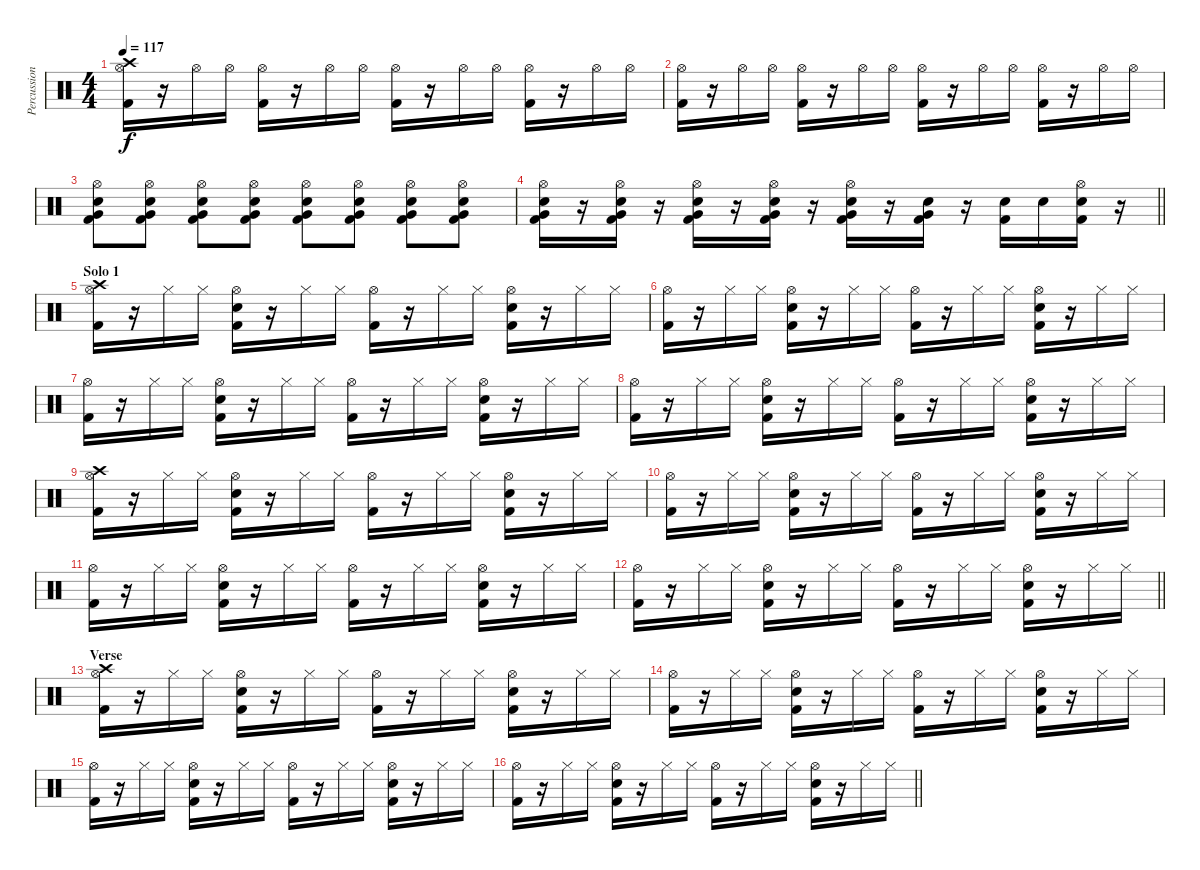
\track ("Percussion" "Percussion") {instrument percussion}
\staff {score}
\articulation defaults
\ts (4 4)
\tempo 117
\clef neutral
\ks c
("Crash high (hit)" "Hi-Hat (open)" "Kick (hit) 2").16{dy f} r.16 "Hi-Hat (open)".16 "Hi-Hat (open)".16 ("Hi-Hat (open)" "Kick (hit) 2").16 r.16 "Hi-Hat (open)".16 "Hi-Hat (open)".16 ("Hi-Hat (open)" "Kick (hit) 2").16 r.16 "Hi-Hat (open)".16 "Hi-Hat (open)".16 ("Hi-Hat (open)" "Kick (hit) 2").16 r.16 "Hi-Hat (open)".16 "Hi-Hat (open)".16 |
("Hi-Hat (open)" "Kick (hit) 2").16 r.16 "Hi-Hat (open)".16 "Hi-Hat (open)".16 ("Hi-Hat (open)" "Kick (hit) 2").16 r.16 "Hi-Hat (open)".16 "Hi-Hat (open)".16 ("Hi-Hat (open)" "Kick (hit) 2").16 r.16 "Hi-Hat (open)".16 "Hi-Hat (open)".16 ("Hi-Hat (open)" "Kick (hit) 2").16 r.16 "Hi-Hat (open)".16 "Hi-Hat (open)".16 |
("Snare (hit) 2" "Hi-Hat (open)" "Very Low Tom (hit)" "Kick (hit) 2").8 ("Snare (hit) 2" "Hi-Hat (open)" "Very Low Tom (hit)" "Kick (hit) 2").8 ("Snare (hit) 2" "Hi-Hat (open)" "Very Low Tom (hit)" "Kick (hit) 2").8 ("Snare (hit) 2" "Hi-Hat (open)" "Very Low Tom (hit)" "Kick (hit) 2").8 ("Snare (hit) 2" "Hi-Hat (open)" "Very Low Tom (hit)" "Kick (hit) 2").8 ("Snare (hit) 2" "Hi-Hat (open)" "Very Low Tom (hit)" "Kick (hit) 2").8 ("Snare (hit) 2" "Hi-Hat (open)" "Very Low Tom (hit)" "Kick (hit) 2").8 ("Snare (hit) 2" "Hi-Hat (open)" "Very Low Tom (hit)" "Kick (hit) 2").8 |
\barLineRight lightlight
("Snare (hit) 2" "Hi-Hat (open)" "Very Low Tom (hit)" "Kick (hit) 2").16 r.16 ("Snare (hit) 2" "Hi-Hat (open)" "Very Low Tom (hit)" "Kick (hit) 2").16 r.16 ("Snare (hit) 2" "Hi-Hat (open)" "Very Low Tom (hit)" "Kick (hit) 2").16 r.16 ("Snare (hit) 2" "Hi-Hat (open)" "Very Low Tom (hit)" "Kick (hit) 2").16 r.16 ("Snare (hit) 2" "Hi-Hat (open)" "Very Low Tom (hit)" "Kick (hit) 2").16 r.16 ("Snare (hit) 2" "Very Low Tom (hit)" "Kick (hit) 2").16 r.16 ("Snare (hit) 2" "Kick (hit) 2").16 "Snare (hit) 2".16 ("Hi-Hat (open)" "Snare (hit) 2" "Kick (hit) 2").16 r.16 |
\section ("" "Solo 1")
("Crash high (hit)" "Hi-Hat (open)" "Kick (hit) 2").16 r.16 "Hi-Hat (closed)".16 "Hi-Hat (closed)".16 ("Hi-Hat (open)" "Snare (hit) 2" "Kick (hit) 2").16 r.16 "Hi-Hat (closed)".16 "Hi-Hat (closed)".16 ("Hi-Hat (open)" "Kick (hit) 2").16 r.16 "Hi-Hat (closed)".16 "Hi-Hat (closed)".16 ("Hi-Hat (open)" "Snare (hit) 2" "Kick (hit) 2").16 r.16 "Hi-Hat (closed)".16 "Hi-Hat (closed)".16 |
("Hi-Hat (open)" "Kick (hit) 2").16 r.16 "Hi-Hat (closed)".16 "Hi-Hat (closed)".16 ("Hi-Hat (open)" "Snare (hit) 2" "Kick (hit) 2").16 r.16 "Hi-Hat (closed)".16 "Hi-Hat (closed)".16 ("Hi-Hat (open)" "Kick (hit) 2").16 r.16 "Hi-Hat (closed)".16 "Hi-Hat (closed)".16 ("Hi-Hat (open)" "Snare (hit) 2" "Kick (hit) 2").16 r.16 "Hi-Hat (closed)".16 "Hi-Hat (closed)".16 |
("Hi-Hat (open)" "Kick (hit) 2").16 r.16 "Hi-Hat (closed)".16 "Hi-Hat (closed)".16 ("Hi-Hat (open)" "Snare (hit) 2" "Kick (hit) 2").16 r.16 "Hi-Hat (closed)".16 "Hi-Hat (closed)".16 ("Hi-Hat (open)" "Kick (hit) 2").16 r.16 "Hi-Hat (closed)".16 "Hi-Hat (closed)".16 ("Hi-Hat (open)" "Snare (hit) 2" "Kick (hit) 2").16 r.16 "Hi-Hat (closed)".16 "Hi-Hat (closed)".16 |
("Hi-Hat (open)" "Kick (hit) 2").16 r.16 "Hi-Hat (closed)".16 "Hi-Hat (closed)".16 ("Hi-Hat (open)" "Snare (hit) 2" "Kick (hit) 2").16 r.16 "Hi-Hat (closed)".16 "Hi-Hat (closed)".16 ("Hi-Hat (open)" "Kick (hit) 2").16 r.16 "Hi-Hat (closed)".16 "Hi-Hat (closed)".16 ("Hi-Hat (open)" "Snare (hit) 2" "Kick (hit) 2").16 r.16 "Hi-Hat (closed)".16 "Hi-Hat (closed)".16 |
("Crash high (hit)" "Hi-Hat (open)" "Kick (hit) 2").16 r.16 "Hi-Hat (closed)".16 "Hi-Hat (closed)".16 ("Hi-Hat (open)" "Snare (hit) 2" "Kick (hit) 2").16 r.16 "Hi-Hat (closed)".16 "Hi-Hat (closed)".16 ("Hi-Hat (open)" "Kick (hit) 2").16 r.16 "Hi-Hat (closed)".16 "Hi-Hat (closed)".16 ("Hi-Hat (open)" "Snare (hit) 2" "Kick (hit) 2").16 r.16 "Hi-Hat (closed)".16 "Hi-Hat (closed)".16 |
("Hi-Hat (open)" "Kick (hit) 2").16 r.16 "Hi-Hat (closed)".16 "Hi-Hat (closed)".16 ("Hi-Hat (open)" "Snare (hit) 2" "Kick (hit) 2").16 r.16 "Hi-Hat (closed)".16 "Hi-Hat (closed)".16 ("Hi-Hat (open)" "Kick (hit) 2").16 r.16 "Hi-Hat (closed)".16 "Hi-Hat (closed)".16 ("Hi-Hat (open)" "Snare (hit) 2" "Kick (hit) 2").16 r.16 "Hi-Hat (closed)".16 "Hi-Hat (closed)".16 |
("Hi-Hat (open)" "Kick (hit) 2").16 r.16 "Hi-Hat (closed)".16 "Hi-Hat (closed)".16 ("Hi-Hat (open)" "Snare (hit) 2" "Kick (hit) 2").16 r.16 "Hi-Hat (closed)".16 "Hi-Hat (closed)".16 ("Hi-Hat (open)" "Kick (hit) 2").16 r.16 "Hi-Hat (closed)".16 "Hi-Hat (closed)".16 ("Hi-Hat (open)" "Snare (hit) 2" "Kick (hit) 2").16 r.16 "Hi-Hat (closed)".16 "Hi-Hat (closed)".16 |
\barLineRight lightlight
("Hi-Hat (open)" "Kick (hit) 2").16 r.16 "Hi-Hat (closed)".16 "Hi-Hat (closed)".16 ("Hi-Hat (open)" "Snare (hit) 2" "Kick (hit) 2").16 r.16 "Hi-Hat (closed)".16 "Hi-Hat (closed)".16 ("Hi-Hat (open)" "Kick (hit) 2").16 r.16 "Hi-Hat (closed)".16 "Hi-Hat (closed)".16 ("Hi-Hat (open)" "Snare (hit) 2" "Kick (hit) 2").16 r.16 "Hi-Hat (closed)".16 "Hi-Hat (closed)".16 |
\section ("" "Verse")
("Crash high (hit)" "Hi-Hat (open)" "Kick (hit) 2").16 r.16 "Hi-Hat (closed)".16 "Hi-Hat (closed)".16 ("Hi-Hat (open)" "Snare (hit) 2" "Kick (hit) 2").16 r.16 "Hi-Hat (closed)".16 "Hi-Hat (closed)".16 ("Hi-Hat (open)" "Kick (hit) 2").16 r.16 "Hi-Hat (closed)".16 "Hi-Hat (closed)".16 ("Hi-Hat (open)" "Snare (hit) 2" "Kick (hit) 2").16 r.16 "Hi-Hat (closed)".16 "Hi-Hat (closed)".16 |
("Hi-Hat (open)" "Kick (hit) 2").16 r.16 "Hi-Hat (closed)".16 "Hi-Hat (closed)".16 ("Hi-Hat (open)" "Snare (hit) 2" "Kick (hit) 2").16 r.16 "Hi-Hat (closed)".16 "Hi-Hat (closed)".16 ("Hi-Hat (open)" "Kick (hit) 2").16 r.16 "Hi-Hat (closed)".16 "Hi-Hat (closed)".16 ("Hi-Hat (open)" "Snare (hit) 2" "Kick (hit) 2").16 r.16 "Hi-Hat (closed)".16 "Hi-Hat (closed)".16 |
("Hi-Hat (open)" "Kick (hit) 2").16 r.16 "Hi-Hat (closed)".16 "Hi-Hat (closed)".16 ("Hi-Hat (open)" "Snare (hit) 2" "Kick (hit) 2").16 r.16 "Hi-Hat (closed)".16 "Hi-Hat (closed)".16 ("Hi-Hat (open)" "Kick (hit) 2").16 r.16 "Hi-Hat (closed)".16 "Hi-Hat (closed)".16 ("Hi-Hat (open)" "Snare (hit) 2" "Kick (hit) 2").16 r.16 "Hi-Hat (closed)".16 "Hi-Hat (closed)".16 |
\barLineRight lightlight
("Hi-Hat (open)" "Kick (hit) 2").16 r.16 "Hi-Hat (closed)".16 "Hi-Hat (closed)".16 ("Hi-Hat (open)" "Snare (hit) 2" "Kick (hit) 2").16 r.16 "Hi-Hat (closed)".16 "Hi-Hat (closed)".16 ("Hi-Hat (open)" "Kick (hit) 2").16 r.16 "Hi-Hat (closed)".16 "Hi-Hat (closed)".16 ("Hi-Hat (open)" "Snare (hit) 2" "Kick (hit) 2").16 r.16 "Hi-Hat (closed)".16 "Hi-Hat (closed)".16
